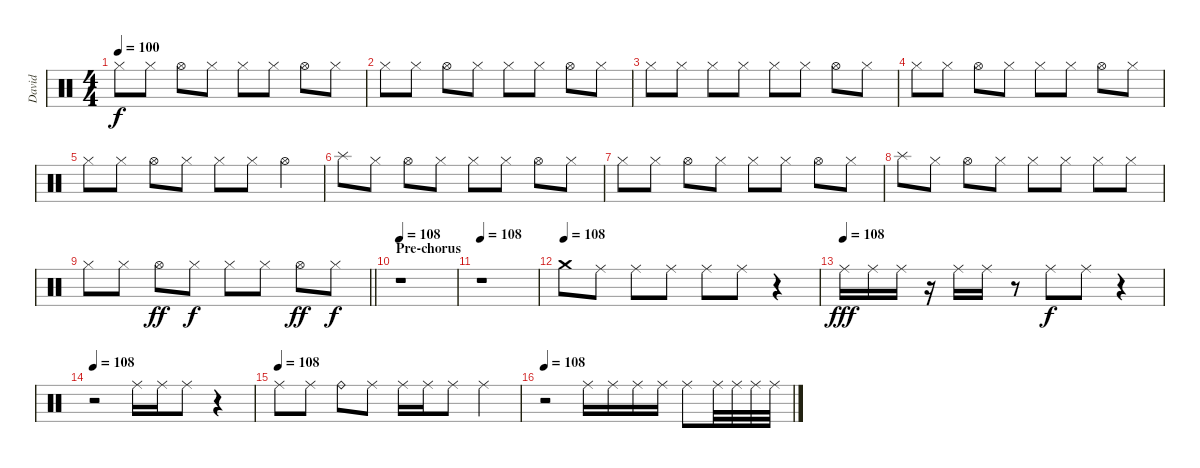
\track ("David" "David") {instrument percussion}
\staff {score}
\articulation defaults
\ts (4 4)
\tempo 100
\clef neutral
\ks c "Hi-Hat (closed)".8{dy f} "Hi-Hat (closed)".8 "Hi-Hat (open)".8 "Hi-Hat (closed)".8 "Hi-Hat (closed)".8 "Hi-Hat (closed)".8 "Hi-Hat (open)".8 "Hi-Hat (closed)".8
|
"Hi-Hat (closed)".8 "Hi-Hat (closed)".8 "Hi-Hat (open)".8 "Hi-Hat (closed)".8 "Hi-Hat (closed)".8 "Hi-Hat (closed)".8 "Hi-Hat (open)".8 "Hi-Hat (closed)".8 |
"Hi-Hat (closed)".8 "Hi-Hat (closed)".8 "Hi-Hat (closed)".8 "Hi-Hat (closed)".8 "Hi-Hat (closed)".8 "Hi-Hat (closed)".8 "Hi-Hat (open)".8 "Hi-Hat (closed)".8 |
"Hi-Hat (closed)".8 "Hi-Hat (closed)".8 "Hi-Hat (open)".8 "Hi-Hat (closed)".8 "Hi-Hat (closed)".8 "Hi-Hat (closed)".8 "Hi-Hat (open)".8 "Hi-Hat (closed)".8 |
"Hi-Hat (closed)".8 "Hi-Hat (closed)".8 "Hi-Hat (open)".8 "Hi-Hat (closed)".8 "Hi-Hat (closed)".8 "Hi-Hat (closed)".8 "Hi-Hat (open)".4 |
"Splash (hit)".8 "Hi-Hat (closed)".8 "Hi-Hat (open)".8 "Hi-Hat (closed)".8 "Hi-Hat (closed)".8 "Hi-Hat (closed)".8 "Hi-Hat (open)".8 "Hi-Hat (closed)".8 |
"Hi-Hat (closed)".8 "Hi-Hat (closed)".8 "Hi-Hat (open)".8 "Hi-Hat (closed)".8 "Hi-Hat (closed)".8 "Hi-Hat (closed)".8 "Hi-Hat (open)".8 "Hi-Hat (closed)".8 |
"Splash (hit)".8 "Hi-Hat (closed)".8 "Hi-Hat (open)".8 "Hi-Hat (closed)".8 "Hi-Hat (closed)".8 "Hi-Hat (closed)".8 "Hi-Hat (closed)".8 "Hi-Hat (closed)".8 |
\barLineRight lightlight "Hi-Hat (closed)".8 "Hi-Hat (closed)".8 "Hi-Hat (open)".8{dy ff} "Hi-Hat (closed)".8{dy f} "Hi-Hat (closed)".8 "Hi-Hat (closed)".8 "Hi-Hat (open)".8{dy ff} "Hi-Hat (closed)".8{dy f}
|
\section ("" "Pre-chorus")
\tempo 108
r.1 |
\tempo 108
r.1 |
\tempo (108)
"Crash medium (hit)".8 "Ride (middle)".8 "Ride (middle)".8 "Ride (middle)".8 "Ride (middle)".8 "Ride (middle)".8 r.4 |
\tempo (108)
"Ride (middle)".16{dy fff} "Ride (middle)".16 "Ride (middle)".16 r.16 "Ride (middle)".16 "Ride (middle)".16 r.8 "Ride (middle)".8{dy f} "Ride (middle)".8 r.4 |
\tempo 108
r.2 "Ride (middle)".16 "Ride (middle)".16 "Ride (middle)".8 r.4 |
\tempo (108)
"Ride (middle)".8 "Ride (middle)".8 "Ride (bell)".8 "Ride (middle)".8 "Ride (middle)".16 "Ride (middle)".16 "Ride (middle)".8 "Ride (middle)".4 |
\tempo 108
r.2 "Ride (middle)".16 "Ride (middle)".16 "Ride (middle)".16 "Ride (middle)".16 "Ride (middle)".8 "Ride (middle)".32 "Ride (middle)".32 "Ride (middle)".32 "Ride (middle)".32
